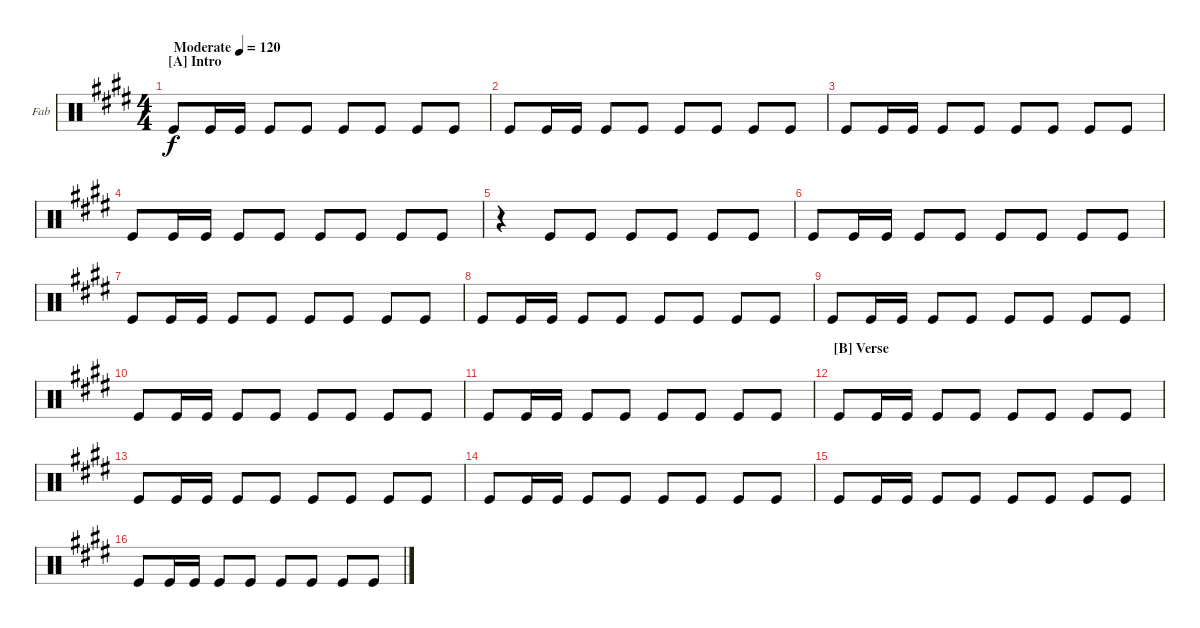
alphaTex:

\bracketExtendMode groupsimilarinstruments
\firstSystemTrackNameOrientation horizontal
\otherSystemsTrackNameOrientation horizontal
\track ("Pipe" "Fab") {instrument percussion}
\staff {score}
\articulation defaults
\ts (4 4)
\beaming (8 2 2 2 2)
\section ("A" "Intro")
\tempo (120 "Moderate")
\clef neutral
\scale
0.474178
\ks e "Kick (hit)".8{dy f} "Kick (hit)".16 "Kick (hit)".16 "Kick (hit)".8 "Kick (hit)".8 "Kick (hit)".8 "Kick (hit)".8 "Kick (hit)".8 "Kick (hit)".8
|
\scale
0.262911 "Kick (hit)".8 "Kick (hit)".16 "Kick (hit)".16 "Kick (hit)".8 "Kick (hit)".8 "Kick (hit)".8 "Kick (hit)".8 "Kick (hit)".8 "Kick (hit)".8 |
\scale
0.262911 "Kick (hit)".8 "Kick (hit)".16 "Kick (hit)".16 "Kick (hit)".8 "Kick (hit)".8 "Kick (hit)".8 "Kick (hit)".8 "Kick (hit)".8 "Kick (hit)".8 |
\scale
0.333333 "Kick (hit)".8 "Kick (hit)".16 "Kick (hit)".16 "Kick (hit)".8 "Kick (hit)".8 "Kick (hit)".8 "Kick (hit)".8 "Kick (hit)".8 "Kick (hit)".8 |
\scale
0.333333 r.4 "Kick (hit)".8 "Kick (hit)".8 "Kick (hit)".8 "Kick (hit)".8 "Kick (hit)".8 "Kick (hit)".8 |
\scale
0.333333 "Kick (hit)".8 "Kick (hit)".16 "Kick (hit)".16 "Kick (hit)".8 "Kick (hit)".8 "Kick (hit)".8 "Kick (hit)".8 "Kick (hit)".8 "Kick (hit)".8 |
\scale
0.333333 "Kick (hit)".8 "Kick (hit)".16 "Kick (hit)".16 "Kick (hit)".8 "Kick (hit)".8 "Kick (hit)".8 "Kick (hit)".8 "Kick (hit)".8 "Kick (hit)".8 |
\scale
0.333333 "Kick (hit)".8 "Kick (hit)".16 "Kick (hit)".16 "Kick (hit)".8 "Kick (hit)".8 "Kick (hit)".8 "Kick (hit)".8 "Kick (hit)".8 "Kick (hit)".8 |
\scale
0.333333 "Kick (hit)".8 "Kick (hit)".16 "Kick (hit)".16 "Kick (hit)".8 "Kick (hit)".8 "Kick (hit)".8 "Kick (hit)".8 "Kick (hit)".8 "Kick (hit)".8 |
\scale
0.333333 "Kick (hit)".8 "Kick (hit)".16 "Kick (hit)".16 "Kick (hit)".8 "Kick (hit)".8 "Kick (hit)".8 "Kick (hit)".8 "Kick (hit)".8 "Kick (hit)".8 |
\scale
0.333333 "Kick (hit)".8 "Kick (hit)".16 "Kick (hit)".16 "Kick (hit)".8 "Kick (hit)".8 "Kick (hit)".8 "Kick (hit)".8 "Kick (hit)".8 "Kick (hit)".8 |
\section ("B" "Verse")
\scale
0.333333 "Kick (hit)".8 "Kick (hit)".16 "Kick (hit)".16 "Kick (hit)".8 "Kick (hit)".8 "Kick (hit)".8 "Kick (hit)".8 "Kick (hit)".8 "Kick (hit)".8 |
\scale
0.333333 "Kick (hit)".8 "Kick (hit)".16 "Kick (hit)".16 "Kick (hit)".8 "Kick (hit)".8 "Kick (hit)".8 "Kick (hit)".8 "Kick (hit)".8 "Kick (hit)".8 |
\scale
0.333333 "Kick (hit)".8 "Kick (hit)".16 "Kick (hit)".16 "Kick (hit)".8 "Kick (hit)".8 "Kick (hit)".8 "Kick (hit)".8 "Kick (hit)".8 "Kick (hit)".8 |
\scale
0.333333 "Kick (hit)".8 "Kick (hit)".16 "Kick (hit)".16 "Kick (hit)".8 "Kick (hit)".8 "Kick (hit)".8 "Kick (hit)".8 "Kick (hit)".8 "Kick (hit)".8 |
\scale
0.333333 "Kick (hit)".8 "Kick (hit)".16 "Kick (hit)".16 "Kick (hit)".8 "Kick (hit)".8 "Kick (hit)".8 "Kick (hit)".8 "Kick (hit)".8 "Kick (hit)".8
